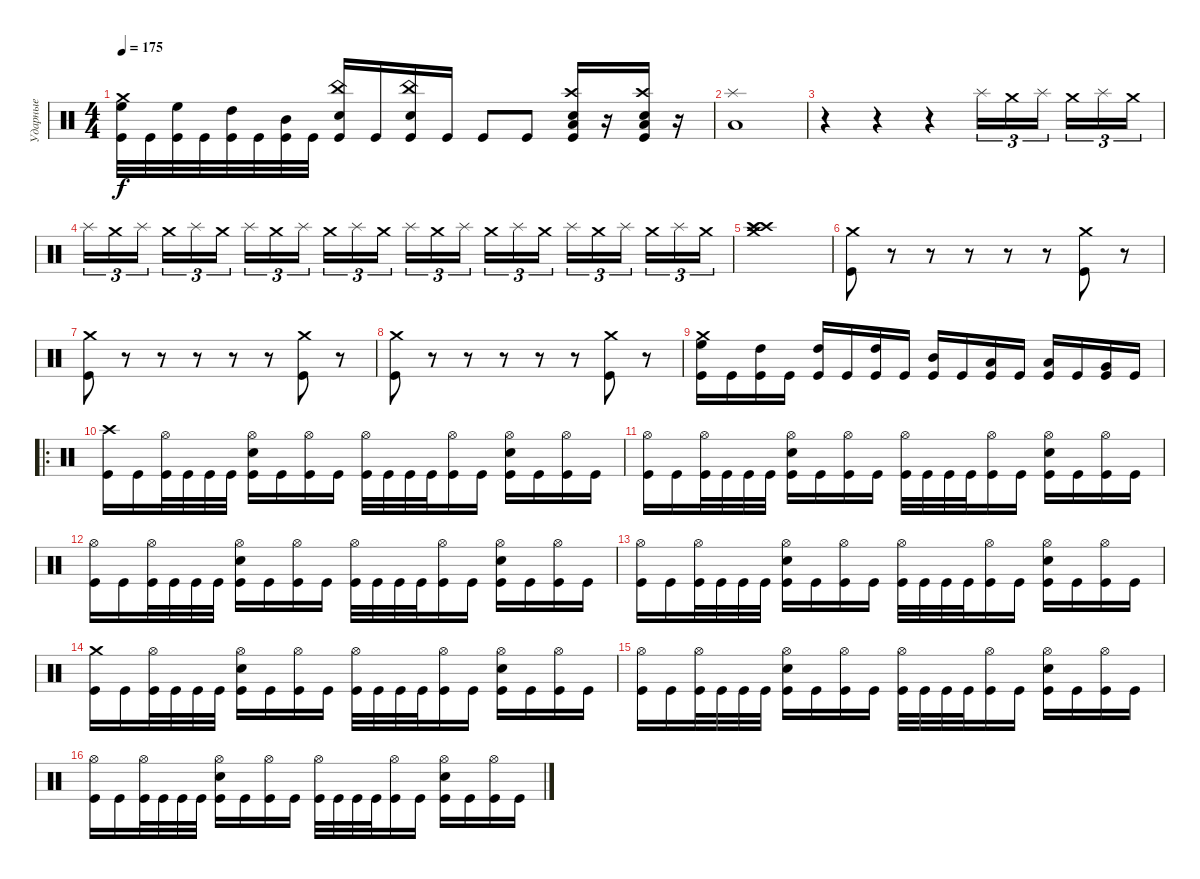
\track ("Ударные" "Ударные") {instrument percussion}
\staff {score}
\articulation defaults
\ts (4 4)
\tempo 175
\clef neutral
\ks c
("Crash medium (hit)" "High Floor Tom (hit)" "Kick (hit)").32{dy f} "Kick (hit)".32 ("High Floor Tom (hit)" "Kick (hit)").32 "Kick (hit)".32 ("High Tom (hit)" "Kick (hit)").32 "Kick (hit)".32 ("Mid Tom (hit)" "Kick (hit)").32 "Kick (hit)".32 ("China (hit)" "Snare (hit) 2" "Kick (hit)").16 "Kick (hit)".16 ("China (hit)" "Snare (hit) 2" "Kick (hit)").16 "Kick (hit)".16 "Kick (hit)".8 "Kick (hit)".8 ("Crash high (hit)" "Snare (hit) 2" "Low Tom (hit)" "Kick (hit)").16 r.16 ("Crash high (hit)" "Snare (hit) 2" "Low Tom (hit)" "Kick (hit)").16 r.16 |
("Low Tom (hit)" "Splash (hit)").1 |
r.4 r.4 r.4{volume 3} "Splash (hit)".16{tu (3 2) volume 11} "Crash medium (hit)".16{tu (3 2)} "Splash (hit)".16{tu (3 2) beam splitsecondary} "Crash medium (hit)".16{tu (3 2)} "Splash (hit)".16{tu (3 2)} "Crash medium (hit)".16{tu (3 2)} |
"Splash (hit)".16{tu (3 2)} "Crash medium (hit)".16{tu (3 2)} "Splash (hit)".16{tu (3 2) beam splitsecondary} "Crash medium (hit)".16{tu (3 2)} "Splash (hit)".16{tu (3 2)} "Crash medium (hit)".16{tu (3 2)} "Splash (hit)".16{tu (3 2)} "Crash medium (hit)".16{tu (3 2)} "Splash (hit)".16{tu (3 2) beam splitsecondary} "Crash medium (hit)".16{tu (3 2)} "Splash (hit)".16{tu (3 2)} "Crash medium (hit)".16{tu (3 2)} "Splash (hit)".16{tu (3 2)} "Crash medium (hit)".16{tu (3 2)} "Splash (hit)".16{tu (3 2) beam splitsecondary} "Crash medium (hit)".16{tu (3 2)} "Splash (hit)".16{tu (3 2)} "Crash medium (hit)".16{tu (3 2)} "Splash (hit)".16{tu (3 2)} "Crash medium (hit)".16{tu (3 2)} "Splash (hit)".16{tu (3 2) beam splitsecondary} "Crash medium (hit)".16{tu (3 2)} "Splash (hit)".16{tu (3 2)} "Crash medium (hit)".16{tu (3 2)} |
("Crash medium (hit)" "Crash high (hit)" "Crash high (hit)" "Splash (hit)").1 |
("Crash medium (hit)" "Kick (hit)").8 r.8 r.8 r.8 r.8 r.8 ("Crash medium (hit)" "Kick (hit)").8 r.8 |
("Crash medium (hit)" "Kick (hit)").8 r.8 r.8 r.8 r.8 r.8 ("Crash medium (hit)" "Kick (hit)").8 r.8 |
("Crash medium (hit)" "Kick (hit)").8 r.8 r.8 r.8 r.8 r.8 ("Crash medium (hit)" "Kick (hit)").8 r.8 |
("High Floor Tom (hit)" "Crash medium (hit)" "Kick (hit)").16 "Kick (hit)".16 ("High Tom (hit)" "Kick (hit)").16 "Kick (hit)".16 ("High Tom (hit)" "Kick (hit)").16 "Kick (hit)".16 ("High Tom (hit)" "Kick (hit)").16 "Kick (hit)".16 ("Mid Tom (hit)" "Kick (hit)").16 "Kick (hit)".16 ("Low Tom (hit)" "Kick (hit)").16 "Kick (hit)".16 ("Low Tom (hit)" "Kick (hit)").16 "Kick (hit)".16 ("Very Low Tom (hit)" "Kick (hit)").16 "Kick (hit)".16 |
\ro
("Crash high (hit)" "Kick (hit)").16 "Kick (hit)".16 ("Hi-Hat (open)" "Kick (hit)").32 "Kick (hit)".32 "Kick (hit)".32 "Kick (hit)".32 ("Snare (hit) 2" "Hi-Hat (open)" "Kick (hit)").16 "Kick (hit)".16 ("Hi-Hat (open)" "Kick (hit)").16 "Kick (hit)".16 ("Hi-Hat (open)" "Kick (hit)").32 "Kick (hit)".32 "Kick (hit)".32 "Kick (hit)".32 ("Hi-Hat (open)" "Kick (hit)").16 "Kick (hit)".16 ("Snare (hit) 2" "Hi-Hat (open)" "Kick (hit)").16 "Kick (hit)".16 ("Hi-Hat (open)" "Kick (hit)").16 "Kick (hit)".16 |
("Hi-Hat (open)" "Kick (hit)").16 "Kick (hit)".16 ("Hi-Hat (open)" "Kick (hit)").32 "Kick (hit)".32 "Kick (hit)".32 "Kick (hit)".32 ("Snare (hit) 2" "Hi-Hat (open)" "Kick (hit)").16 "Kick (hit)".16 ("Hi-Hat (open)" "Kick (hit)").16 "Kick (hit)".16 ("Hi-Hat (open)" "Kick (hit)").32 "Kick (hit)".32 "Kick (hit)".32 "Kick (hit)".32 ("Hi-Hat (open)" "Kick (hit)").16 "Kick (hit)".16 ("Snare (hit) 2" "Hi-Hat (open)" "Kick (hit)").16 "Kick (hit)".16 ("Hi-Hat (open)" "Kick (hit)").16 "Kick (hit)".16 |
("Hi-Hat (open)" "Kick (hit)").16 "Kick (hit)".16 ("Hi-Hat (open)" "Kick (hit)").32 "Kick (hit)".32 "Kick (hit)".32 "Kick (hit)".32 ("Snare (hit) 2" "Hi-Hat (open)" "Kick (hit)").16 "Kick (hit)".16 ("Hi-Hat (open)" "Kick (hit)").16 "Kick (hit)".16 ("Hi-Hat (open)" "Kick (hit)").32 "Kick (hit)".32 "Kick (hit)".32 "Kick (hit)".32 ("Hi-Hat (open)" "Kick (hit)").16 "Kick (hit)".16 ("Snare (hit) 2" "Hi-Hat (open)" "Kick (hit)").16 "Kick (hit)".16 ("Hi-Hat (open)" "Kick (hit)").16 "Kick (hit)".16 |
("Hi-Hat (open)" "Kick (hit)").16 "Kick (hit)".16 ("Hi-Hat (open)" "Kick (hit)").32 "Kick (hit)".32 "Kick (hit)".32 "Kick (hit)".32 ("Snare (hit) 2" "Hi-Hat (open)" "Kick (hit)").16 "Kick (hit)".16 ("Hi-Hat (open)" "Kick (hit)").16 "Kick (hit)".16 ("Hi-Hat (open)" "Kick (hit)").32 "Kick (hit)".32 "Kick (hit)".32 "Kick (hit)".32 ("Hi-Hat (open)" "Kick (hit)").16 "Kick (hit)".16 ("Snare (hit) 2" "Hi-Hat (open)" "Kick (hit)").16 "Kick (hit)".16 ("Hi-Hat (open)" "Kick (hit)").16 "Kick (hit)".16 |
("Crash medium (hit)" "Kick (hit)").16 "Kick (hit)".16 ("Hi-Hat (open)" "Kick (hit)").32 "Kick (hit)".32 "Kick (hit)".32 "Kick (hit)".32 ("Snare (hit) 2" "Hi-Hat (open)" "Kick (hit)").16 "Kick (hit)".16 ("Hi-Hat (open)" "Kick (hit)").16 "Kick (hit)".16 ("Hi-Hat (open)" "Kick (hit)").32 "Kick (hit)".32 "Kick (hit)".32 "Kick (hit)".32 ("Hi-Hat (open)" "Kick (hit)").16 "Kick (hit)".16 ("Snare (hit) 2" "Hi-Hat (open)" "Kick (hit)").16 "Kick (hit)".16 ("Hi-Hat (open)" "Kick (hit)").16 "Kick (hit)".16 |
("Hi-Hat (open)" "Kick (hit)").16 "Kick (hit)".16 ("Hi-Hat (open)" "Kick (hit)").32 "Kick (hit)".32 "Kick (hit)".32 "Kick (hit)".32 ("Snare (hit) 2" "Hi-Hat (open)" "Kick (hit)").16 "Kick (hit)".16 ("Hi-Hat (open)" "Kick (hit)").16 "Kick (hit)".16 ("Hi-Hat (open)" "Kick (hit)").32 "Kick (hit)".32 "Kick (hit)".32 "Kick (hit)".32 ("Hi-Hat (open)" "Kick (hit)").16 "Kick (hit)".16 ("Snare (hit) 2" "Hi-Hat (open)" "Kick (hit)").16 "Kick (hit)".16 ("Hi-Hat (open)" "Kick (hit)").16 "Kick (hit)".16 |
("Hi-Hat (open)" "Kick (hit)").16 "Kick (hit)".16 ("Hi-Hat (open)" "Kick (hit)").32 "Kick (hit)".32 "Kick (hit)".32 "Kick (hit)".32 ("Snare (hit) 2" "Hi-Hat (open)" "Kick (hit)").16 "Kick (hit)".16 ("Hi-Hat (open)" "Kick (hit)").16 "Kick (hit)".16 ("Hi-Hat (open)" "Kick (hit)").32 "Kick (hit)".32 "Kick (hit)".32 "Kick (hit)".32 ("Hi-Hat (open)" "Kick (hit)").16 "Kick (hit)".16 ("Snare (hit) 2" "Hi-Hat (open)" "Kick (hit)").16 "Kick (hit)".16 ("Hi-Hat (open)" "Kick (hit)").16 "Kick (hit)".16
